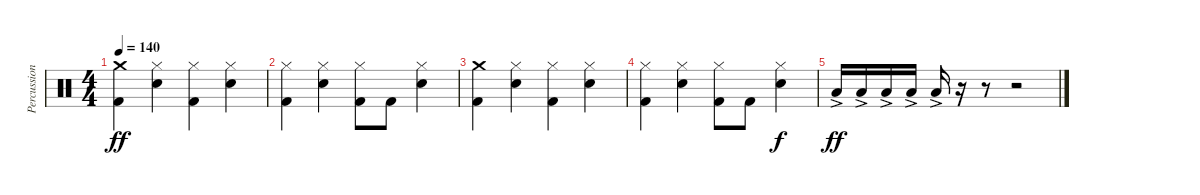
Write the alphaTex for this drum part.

\track ("Percussion" "Percussion") {instrument percussion}
\staff {score}
\articulation defaults
\ts (4 4)
\tempo 140
\clef neutral
\ks c
("Crash medium (hit)" "Kick (hit) 2").4{dy ff} ("Hi-Hat (closed)" "Snare (hit) 2").4 ("Hi-Hat (closed)" "Kick (hit) 2").4 ("Hi-Hat (closed)" "Snare (hit) 2").4 |
("Hi-Hat (closed)" "Kick (hit) 2").4 ("Hi-Hat (closed)" "Snare (hit) 2").4 ("Hi-Hat (closed)" "Kick (hit) 2").8 "Kick (hit) 2".8 ("Hi-Hat (closed)" "Snare (hit) 2").4 |
("Crash medium (hit)" "Kick (hit) 2").4 ("Hi-Hat (closed)" "Snare (hit) 2").4 ("Hi-Hat (closed)" "Kick (hit) 2").4 ("Hi-Hat (closed)" "Snare (hit) 2").4 |
("Hi-Hat (closed)" "Kick (hit) 2").4 ("Hi-Hat (closed)" "Snare (hit) 2").4 ("Hi-Hat (closed)" "Kick (hit) 2").8 "Kick (hit) 2".8 ("Hi-Hat (closed)" "Snare (hit) 2").4{dy f} |
"Low Floor Tom (hit)"{ac}.16{dy ff} "Low Floor Tom (hit)"{ac}.16 "Low Floor Tom (hit)"{ac}.16 "Low Floor Tom (hit)"{ac}.16 "Low Floor Tom (hit)"{ac}.16 r.16 r.8 r.2
